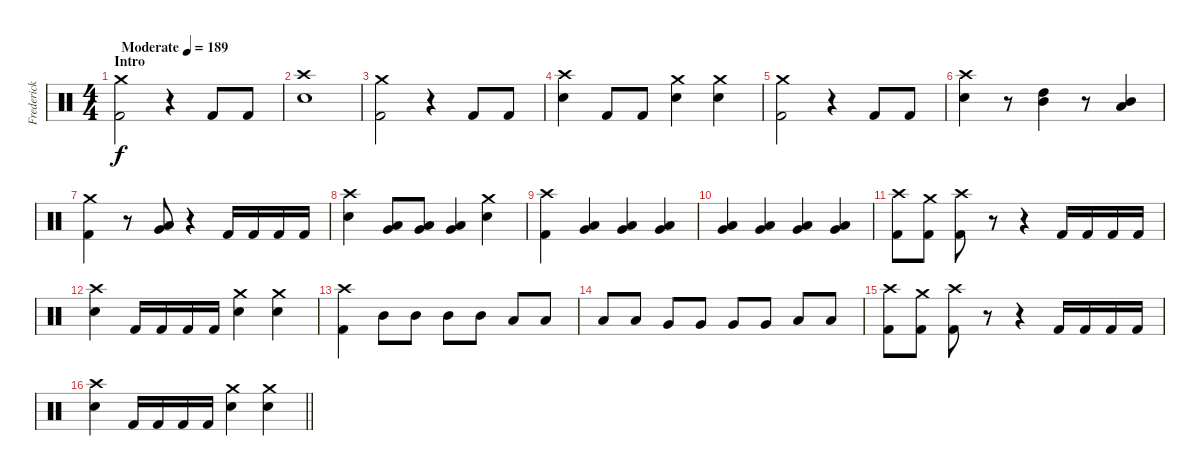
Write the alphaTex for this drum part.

\track ("Frederick Ehmke" "Frederick ") {instrument percussion}
\staff {score}
\articulation defaults
\ts (4 4)
\section ("" "Intro")
\tempo (189 "Moderate")
\clef neutral
\ks c
("Kick (hit) 2" "Crash medium (hit)").2{dy f} r.4 "Kick (hit) 2".8 "Kick (hit) 2".8 |
("Electric Snare (hit)" "Crash high (hit)").1 |
("Kick (hit) 2" "Crash medium (hit)").2 r.4 "Kick (hit) 2".8 "Kick (hit) 2".8 |
("Electric Snare (hit)" "Crash high (hit)").4 "Kick (hit) 2".8 "Kick (hit) 2".8 ("Electric Snare (hit)" "Crash medium (hit)").4 ("Electric Snare (hit)" "Crash medium (hit)").4 |
("Kick (hit) 2" "Crash medium (hit)").2 r.4 "Kick (hit) 2".8 "Kick (hit) 2".8 |
("Electric Snare (hit)" "Crash high (hit)").4 r.8 ("Mid Tom (hit)" "High Tom (hit)").4 r.8 ("Mid Tom (hit)" "Low Tom (hit)").4 |
("Kick (hit) 2" "Crash medium (hit)").4 r.8 ("Very Low Tom (hit)" "Low Floor Tom (hit)").8 r.4 "Kick (hit) 2".16 "Kick (hit) 2".16 "Kick (hit) 2".16 "Kick (hit) 2".16 |
("Electric Snare (hit)" "Crash high (hit)").4 ("Low Tom (hit)" "Very Low Tom (hit)").8 ("Low Tom (hit)" "Very Low Tom (hit)").8 ("Low Tom (hit)" "Very Low Tom (hit)").4 ("Electric Snare (hit)" "Crash medium (hit)").4 |
("Kick (hit) 2" "Crash high (hit)").4 ("Low Tom (hit)" "Very Low Tom (hit)").4{volume 6} ("Low Tom (hit)" "Very Low Tom (hit)").4{volume 7} ("Low Tom (hit)" "Very Low Tom (hit)").4{volume 8} |
("Low Tom (hit)" "Very Low Tom (hit)").4{volume 9} ("Low Tom (hit)" "Very Low Tom (hit)").4{volume 10} ("Low Tom (hit)" "Very Low Tom (hit)").4{volume 12} ("Low Tom (hit)" "Very Low Tom (hit)").4{volume 13} |
("Kick (hit) 2" "Crash high (hit)").8 ("Kick (hit) 2" "Crash medium (hit)").8 ("Kick (hit) 2" "Crash high (hit)").8 r.8 r.4 "Kick (hit) 2".16 "Kick (hit) 2".16 "Kick (hit) 2".16 "Kick (hit) 2".16 |
("Electric Snare (hit)" "Crash high (hit)").4 "Kick (hit) 2".16 "Kick (hit) 2".16 "Kick (hit) 2".16 "Kick (hit) 2".16 ("Electric Snare (hit)" "Crash medium (hit)").4 ("Electric Snare (hit)" "Crash medium (hit)").4 |
("Kick (hit) 2" "Crash high (hit)").4 "Mid Tom (hit)".8{volume 6} "Mid Tom (hit)".8 "Mid Tom (hit)".8{volume 7} "Mid Tom (hit)".8 "Low Tom (hit)".8{volume 8} "Low Tom (hit)".8 |
"Low Tom (hit)".8{volume 9} "Low Tom (hit)".8 "Very Low Tom (hit)".8{volume 10} "Very Low Tom (hit)".8 "Very Low Tom (hit)".8{volume 11} "Very Low Tom (hit)".8 "Low Floor Tom (hit)".8{volume 13} "Low Floor Tom (hit)".8 |
("Kick (hit) 2" "Crash high (hit)").8 ("Kick (hit) 2" "Crash medium (hit)").8 ("Kick (hit) 2" "Crash high (hit)").8 r.8 r.4 "Kick (hit) 2".16 "Kick (hit) 2".16 "Kick (hit) 2".16 "Kick (hit) 2".16 |
\barLineRight lightlight
("Electric Snare (hit)" "Crash high (hit)").4 "Kick (hit) 2".16 "Kick (hit) 2".16 "Kick (hit) 2".16 "Kick (hit) 2".16 ("Electric Snare (hit)" "Crash medium (hit)").4 ("Electric Snare (hit)" "Crash medium (hit)").4
